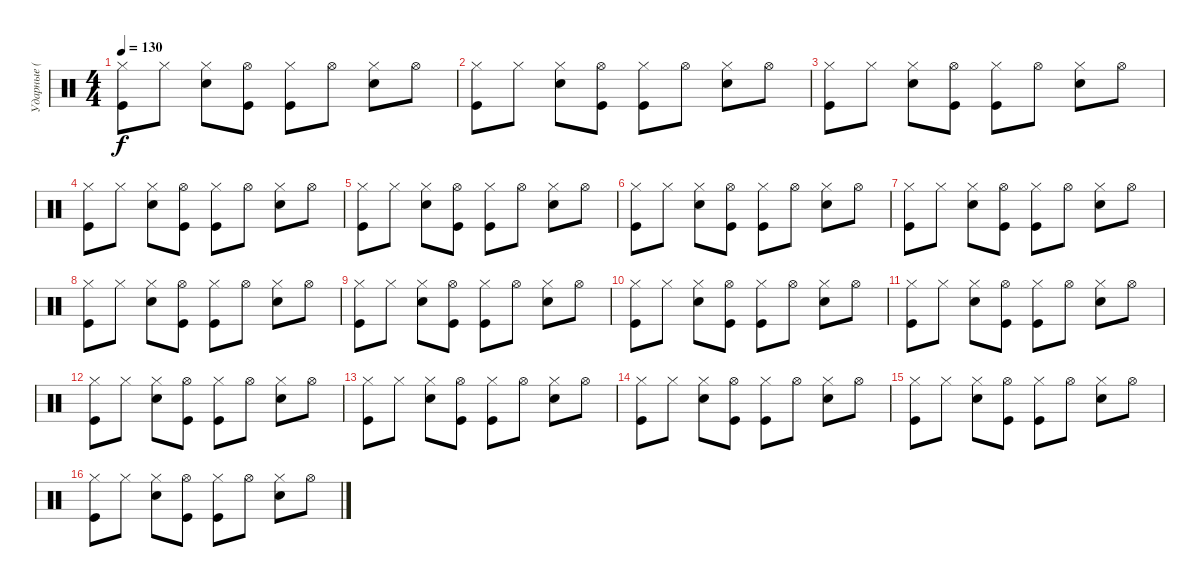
\track (" Ударные (Котов)" " Ударные (") {instrument percussion}
\staff {score}
\articulation defaults
\ts (4 4)
\tempo 130
\clef neutral
\ks c
("Kick (hit)" "Hi-Hat (closed)").8{dy f} "Hi-Hat (closed)".8 ("Snare (hit) 2" "Hi-Hat (closed)").8 ("Kick (hit)" "Hi-Hat (open)").8 ("Kick (hit)" "Hi-Hat (closed)").8 "Hi-Hat (open)".8 ("Snare (hit) 2" "Hi-Hat (closed)").8 "Hi-Hat (open)".8 |
("Kick (hit)" "Hi-Hat (closed)").8 "Hi-Hat (closed)".8 ("Snare (hit) 2" "Hi-Hat (closed)").8 ("Kick (hit)" "Hi-Hat (open)").8 ("Kick (hit)" "Hi-Hat (closed)").8 "Hi-Hat (open)".8 ("Snare (hit) 2" "Hi-Hat (closed)").8 "Hi-Hat (open)".8 |
("Kick (hit)" "Hi-Hat (closed)").8 "Hi-Hat (closed)".8 ("Snare (hit) 2" "Hi-Hat (closed)").8 ("Kick (hit)" "Hi-Hat (open)").8 ("Kick (hit)" "Hi-Hat (closed)").8 "Hi-Hat (open)".8 ("Snare (hit) 2" "Hi-Hat (closed)").8 "Hi-Hat (open)".8 |
("Kick (hit)" "Hi-Hat (closed)").8 "Hi-Hat (closed)".8 ("Snare (hit) 2" "Hi-Hat (closed)").8 ("Kick (hit)" "Hi-Hat (open)").8 ("Kick (hit)" "Hi-Hat (closed)").8 "Hi-Hat (open)".8 ("Snare (hit) 2" "Hi-Hat (closed)").8 "Hi-Hat (open)".8 |
("Kick (hit)" "Hi-Hat (closed)").8 "Hi-Hat (closed)".8 ("Snare (hit) 2" "Hi-Hat (closed)").8 ("Kick (hit)" "Hi-Hat (open)").8 ("Kick (hit)" "Hi-Hat (closed)").8 "Hi-Hat (open)".8 ("Snare (hit) 2" "Hi-Hat (closed)").8 "Hi-Hat (open)".8 |
("Kick (hit)" "Hi-Hat (closed)").8 "Hi-Hat (closed)".8 ("Snare (hit) 2" "Hi-Hat (closed)").8 ("Kick (hit)" "Hi-Hat (open)").8 ("Kick (hit)" "Hi-Hat (closed)").8 "Hi-Hat (open)".8 ("Snare (hit) 2" "Hi-Hat (closed)").8 "Hi-Hat (open)".8 |
("Kick (hit)" "Hi-Hat (closed)").8 "Hi-Hat (closed)".8 ("Snare (hit) 2" "Hi-Hat (closed)").8 ("Kick (hit)" "Hi-Hat (open)").8 ("Kick (hit)" "Hi-Hat (closed)").8 "Hi-Hat (open)".8 ("Snare (hit) 2" "Hi-Hat (closed)").8 "Hi-Hat (open)".8 |
("Kick (hit)" "Hi-Hat (closed)").8 "Hi-Hat (closed)".8 ("Snare (hit) 2" "Hi-Hat (closed)").8 ("Kick (hit)" "Hi-Hat (open)").8 ("Kick (hit)" "Hi-Hat (closed)").8 "Hi-Hat (open)".8 ("Snare (hit) 2" "Hi-Hat (closed)").8 "Hi-Hat (open)".8 |
("Kick (hit)" "Hi-Hat (closed)").8 "Hi-Hat (closed)".8 ("Snare (hit) 2" "Hi-Hat (closed)").8 ("Kick (hit)" "Hi-Hat (open)").8 ("Kick (hit)" "Hi-Hat (closed)").8 "Hi-Hat (open)".8 ("Snare (hit) 2" "Hi-Hat (closed)").8 "Hi-Hat (open)".8 |
("Kick (hit)" "Hi-Hat (closed)").8 "Hi-Hat (closed)".8 ("Snare (hit) 2" "Hi-Hat (closed)").8 ("Kick (hit)" "Hi-Hat (open)").8 ("Kick (hit)" "Hi-Hat (closed)").8 "Hi-Hat (open)".8 ("Snare (hit) 2" "Hi-Hat (closed)").8 "Hi-Hat (open)".8 |
("Kick (hit)" "Hi-Hat (closed)").8 "Hi-Hat (closed)".8 ("Snare (hit) 2" "Hi-Hat (closed)").8 ("Kick (hit)" "Hi-Hat (open)").8 ("Kick (hit)" "Hi-Hat (closed)").8 "Hi-Hat (open)".8 ("Snare (hit) 2" "Hi-Hat (closed)").8 "Hi-Hat (open)".8 |
("Kick (hit)" "Hi-Hat (closed)").8 "Hi-Hat (closed)".8 ("Snare (hit) 2" "Hi-Hat (closed)").8 ("Kick (hit)" "Hi-Hat (open)").8 ("Kick (hit)" "Hi-Hat (closed)").8 "Hi-Hat (open)".8 ("Snare (hit) 2" "Hi-Hat (closed)").8 "Hi-Hat (open)".8 |
("Kick (hit)" "Hi-Hat (closed)").8 "Hi-Hat (closed)".8 ("Snare (hit) 2" "Hi-Hat (closed)").8 ("Kick (hit)" "Hi-Hat (open)").8 ("Kick (hit)" "Hi-Hat (closed)").8 "Hi-Hat (open)".8 ("Snare (hit) 2" "Hi-Hat (closed)").8 "Hi-Hat (open)".8 |
("Kick (hit)" "Hi-Hat (closed)").8 "Hi-Hat (closed)".8 ("Snare (hit) 2" "Hi-Hat (closed)").8 ("Kick (hit)" "Hi-Hat (open)").8 ("Kick (hit)" "Hi-Hat (closed)").8 "Hi-Hat (open)".8 ("Snare (hit) 2" "Hi-Hat (closed)").8 "Hi-Hat (open)".8 |
("Kick (hit)" "Hi-Hat (closed)").8 "Hi-Hat (closed)".8 ("Snare (hit) 2" "Hi-Hat (closed)").8 ("Kick (hit)" "Hi-Hat (open)").8 ("Kick (hit)" "Hi-Hat (closed)").8 "Hi-Hat (open)".8 ("Snare (hit) 2" "Hi-Hat (closed)").8 "Hi-Hat (open)".8 |
("Kick (hit)" "Hi-Hat (closed)").8 "Hi-Hat (closed)".8 ("Snare (hit) 2" "Hi-Hat (closed)").8 ("Kick (hit)" "Hi-Hat (open)").8 ("Kick (hit)" "Hi-Hat (closed)").8 "Hi-Hat (open)".8 ("Snare (hit) 2" "Hi-Hat (closed)").8 "Hi-Hat (open)".8
